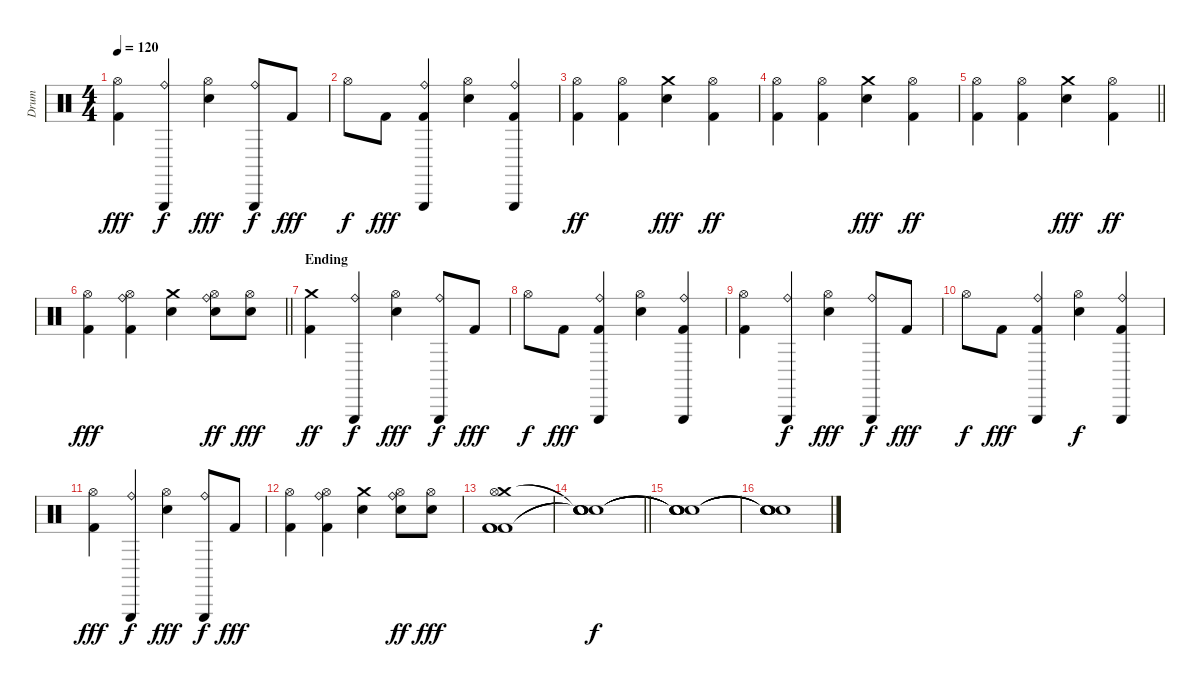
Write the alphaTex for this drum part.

\track ("Drum" "Drum") {instrument percussion}
\staff {score}
\articulation defaults
\ts (4 4)
\tempo 120
\clef neutral
\ks c
("Kick (hit) 2" "Hi-Hat (open)").4{dy fff} ("Ride (bell)" "Triangle (hit)").4{dy f} ("Electric Snare (hit)" "Hi-Hat (open)").4{dy fff} ("Ride (bell)" "Triangle (hit)").8{dy f} "Kick (hit) 2".8{dy fff} |
"Hi-Hat (open)".8{dy f} "Kick (hit) 2".8{dy fff} ("Kick (hit) 2" "Ride (bell)" "Triangle (hit)").4 ("Electric Snare (hit)" "Hi-Hat (open)").4 ("Kick (hit) 2" "Ride (bell)" "Triangle (hit)").4 |
("Kick (hit) 2" "Hi-Hat (open)").4{dy ff} ("Kick (hit) 2" "Hi-Hat (open)").4 ("Electric Snare (hit)" "Crash medium (hit)").4{dy fff} ("Kick (hit) 2" "Hi-Hat (open)").4{dy ff} |
("Kick (hit) 2" "Hi-Hat (open)").4 ("Kick (hit) 2" "Hi-Hat (open)").4 ("Electric Snare (hit)" "Crash medium (hit)").4{dy fff} ("Kick (hit) 2" "Hi-Hat (open)").4{dy ff} |
\barLineRight lightlight
("Kick (hit) 2" "Hi-Hat (open)").4 ("Kick (hit) 2" "Hi-Hat (open)").4 ("Electric Snare (hit)" "Crash medium (hit)").4{dy fff} ("Kick (hit) 2" "Hi-Hat (open)").4{dy ff} |
\barLineRight lightlight
("Kick (hit) 2" "Hi-Hat (open)").4{dy fff} ("Hi-Hat (open)" "Kick (hit) 2" "Ride (bell)").4 ("Crash medium (hit)" "Electric Snare (hit)").4 ("Hi-Hat (open)" "Electric Snare (hit)" "Ride (bell)").8{dy ff} ("Hi-Hat (open)" "Electric Snare (hit)").8{dy fff} |
\section ("" "Ending")
("Kick (hit) 2" "Crash medium (hit)").4{dy ff} ("Ride (bell)" "Triangle (hit)").4{dy f} ("Electric Snare (hit)" "Hi-Hat (open)").4{dy fff} ("Ride (bell)" "Triangle (hit)").8{dy f} "Kick (hit) 2".8{dy fff} |
"Hi-Hat (open)".8{dy f} "Kick (hit) 2".8{dy fff} ("Kick (hit) 2" "Ride (bell)" "Triangle (hit)").4 ("Electric Snare (hit)" "Hi-Hat (open)").4 ("Kick (hit) 2" "Ride (bell)" "Triangle (hit)").4 |
("Kick (hit) 2" "Hi-Hat (open)").4 ("Ride (bell)" "Triangle (hit)").4{dy f} ("Electric Snare (hit)" "Hi-Hat (open)").4{dy fff} ("Ride (bell)" "Triangle (hit)").8{dy f} "Kick (hit) 2".8{dy fff} |
"Hi-Hat (open)".8{dy f} "Kick (hit) 2".8{dy fff} ("Kick (hit) 2" "Ride (bell)" "Triangle (hit)").4 ("Hi-Hat (open)" "Electric Snare (hit)").4{dy f} ("Kick (hit) 2" "Ride (bell)" "Triangle (hit)").4 |
("Kick (hit) 2" "Hi-Hat (open)").4{dy fff} ("Ride (bell)" "Triangle (hit)").4{dy f} ("Electric Snare (hit)" "Hi-Hat (open)").4{dy fff} ("Ride (bell)" "Triangle (hit)").8{dy f} "Kick (hit) 2".8{dy fff} |
("Kick (hit) 2" "Hi-Hat (open)").4 ("Hi-Hat (open)" "Kick (hit) 2" "Ride (bell)").4 ("Crash medium (hit)" "Electric Snare (hit)").4 ("Hi-Hat (open)" "Electric Snare (hit)" "Ride (bell)").8{dy ff} ("Hi-Hat (open)" "Electric Snare (hit)").8{dy fff} |
("Kick (hit) 2" "Crash medium (hit)" "Hi-Hat (open)" "Kick (hit) 2" "Kick (hit) 2").1 |
\barLineRight lightlight
("Snare (hit)"{t} "Snare (hit)"{t} "Snare (hit)"{t} "Snare (hit)"{t} "Snare (hit)"{t}).1{dy f} |
("Snare (hit)"{t} "Snare (hit)"{t} "Snare (hit)"{t} "Snare (hit)"{t} "Snare (hit)"{t}).1 |
("Snare (hit)"{t} "Snare (hit)"{t} "Snare (hit)"{t} "Snare (hit)"{t} "Snare (hit)"{t}).1
